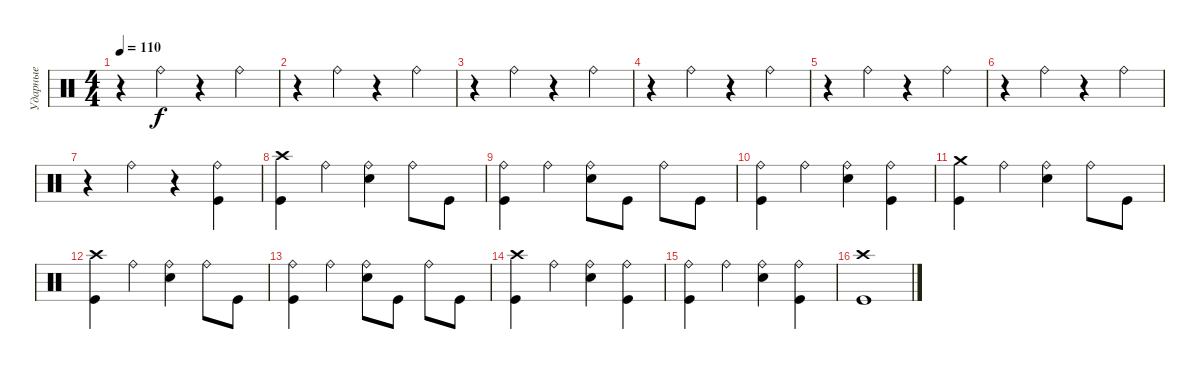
\track ("Ударные" "Ударные") {instrument percussion}
\staff {score}
\articulation defaults
\ts (4 4)
\tempo 110
\clef neutral
\ks c
r.4{dy f} "Ride (bell)".4 r.4 "Ride (bell)".4 |
r.4 "Ride (bell)".4 r.4 "Ride (bell)".4 |
r.4 "Ride (bell)".4 r.4 "Ride (bell)".4 |
r.4 "Ride (bell)".4 r.4 "Ride (bell)".4 |
r.4 "Ride (bell)".4 r.4 "Ride (bell)".4 |
r.4 "Ride (bell)".4 r.4 "Ride (bell)".4 |
r.4 "Ride (bell)".4 r.4 ("Ride (bell)" "Kick (hit)").4 |
("Crash high (hit)" "Kick (hit)").4 "Ride (bell)".4 ("Ride (bell)" "Electric Snare (hit)").4 "Ride (bell)".8 "Kick (hit)".8 |
("Ride (bell)" "Kick (hit)").4 "Ride (bell)".4 ("Ride (bell)" "Electric Snare (hit)").8 "Kick (hit)".8 "Ride (bell)".8 "Kick (hit)".8 |
("Ride (bell)" "Kick (hit)").4 "Ride (bell)".4 ("Ride (bell)" "Electric Snare (hit)").4 ("Ride (bell)" "Kick (hit)").4 |
("Crash medium (hit)" "Kick (hit)").4 "Ride (bell)".4 ("Ride (bell)" "Electric Snare (hit)").4 "Ride (bell)".8 "Kick (hit)".8 |
("Crash high (hit)" "Kick (hit)").4 "Ride (bell)".4 ("Ride (bell)" "Electric Snare (hit)").4 "Ride (bell)".8 "Kick (hit)".8 |
("Ride (bell)" "Kick (hit)").4 "Ride (bell)".4 ("Ride (bell)" "Electric Snare (hit)").8 "Kick (hit)".8 "Ride (bell)".8 "Kick (hit)".8 |
("Crash high (hit)" "Kick (hit)").4 "Ride (bell)".4 ("Ride (bell)" "Electric Snare (hit)").4 ("Ride (bell)" "Kick (hit)").4 |
("Ride (bell)" "Kick (hit)").4 "Ride (bell)".4 ("Ride (bell)" "Electric Snare (hit)").4 ("Ride (bell)" "Kick (hit)").4 |
("Crash high (hit)" "Kick (hit)").1
